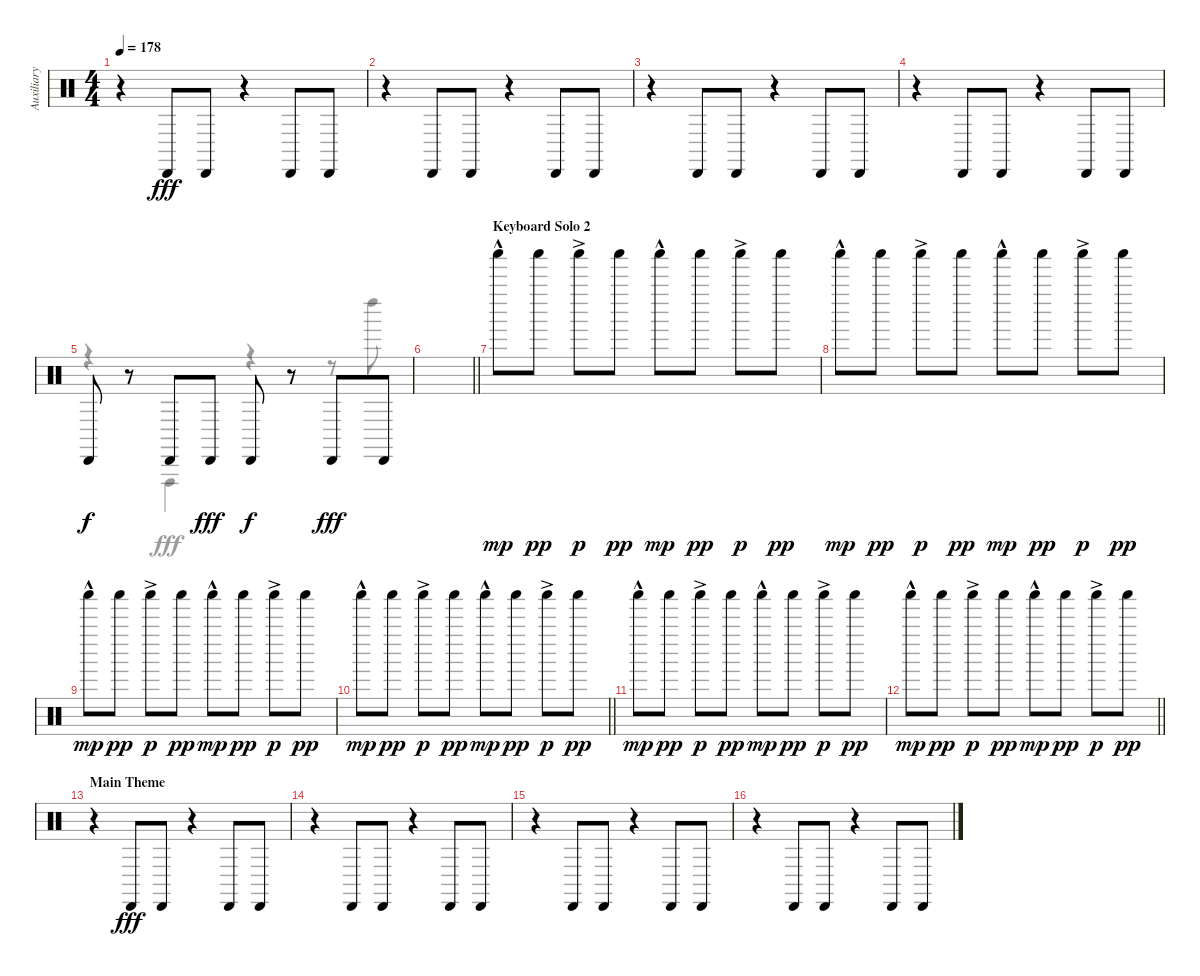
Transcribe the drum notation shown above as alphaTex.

\track ("Auxiliary Percussion" "Auxiliary ") {instrument percussion}
\staff {score}
\articulation defaults
\voice
\ts (4 4)
\tempo 178
\clef neutral
\ks c
r.4{dy fff} "Cabasa (hit)".8 "Cabasa (hit)".8 r.4 "Cabasa (hit)".8 "Cabasa (hit)".8 |
r.4 "Cabasa (hit)".8 "Cabasa (hit)".8 r.4 "Cabasa (hit)".8 "Cabasa (hit)".8 |
r.4 "Cabasa (hit)".8 "Cabasa (hit)".8 r.4 "Cabasa (hit)".8 "Cabasa (hit)".8 |
r.4 "Cabasa (hit)".8 "Cabasa (hit)".8 r.4 "Cabasa (hit)".8 "Cabasa (hit)".8 |
"Cabasa (hit)".8{dy f} r.8 "Cabasa (hit)".8 "Cabasa (hit)".8{dy fff} "Cabasa (hit)".8{dy f} r.8 "Cabasa (hit)".8{dy fff} "Cabasa (hit)".8 |
\barLineRight lightlight
|
\section ("" "Keyboard Solo 2")
"Shaker (hit)"{hac}.8{dy mp} "Shaker (hit)".8{dy pp} "Shaker (hit)"{ac}.8{dy p} "Shaker (hit)".8{dy pp} "Shaker (hit)"{hac}.8{dy mp} "Shaker (hit)".8{dy pp} "Shaker (hit)"{ac}.8{dy p} "Shaker (hit)".8{dy pp} |
"Shaker (hit)"{hac}.8{dy mp} "Shaker (hit)".8{dy pp} "Shaker (hit)"{ac}.8{dy p} "Shaker (hit)".8{dy pp} "Shaker (hit)"{hac}.8{dy mp} "Shaker (hit)".8{dy pp} "Shaker (hit)"{ac}.8{dy p} "Shaker (hit)".8{dy pp} |
"Shaker (hit)"{hac}.8{dy mp} "Shaker (hit)".8{dy pp} "Shaker (hit)"{ac}.8{dy p} "Shaker (hit)".8{dy pp} "Shaker (hit)"{hac}.8{dy mp} "Shaker (hit)".8{dy pp} "Shaker (hit)"{ac}.8{dy p} "Shaker (hit)".8{dy pp} |
\barLineRight lightlight "Shaker (hit)"{hac}.8{dy mp} "Shaker (hit)".8{dy pp} "Shaker (hit)"{ac}.8{dy p} "Shaker (hit)".8{dy pp} "Shaker (hit)"{hac}.8{dy mp} "Shaker (hit)".8{dy pp} "Shaker (hit)"{ac}.8{dy p} "Shaker (hit)".8{dy pp}
|
"Shaker (hit)"{hac}.8{dy mp} "Shaker (hit)".8{dy pp} "Shaker (hit)"{ac}.8{dy p} "Shaker (hit)".8{dy pp} "Shaker (hit)"{hac}.8{dy mp} "Shaker (hit)".8{dy pp} "Shaker (hit)"{ac}.8{dy p} "Shaker (hit)".8{dy pp} |
\barLineRight lightlight "Shaker (hit)"{hac}.8{dy mp} "Shaker (hit)".8{dy pp} "Shaker (hit)"{ac}.8{dy p} "Shaker (hit)".8{dy pp} "Shaker (hit)"{hac}.8{dy mp} "Shaker (hit)".8{dy pp} "Shaker (hit)"{ac}.8{dy p} "Shaker (hit)".8{dy pp}
|
\section ("" "Main Theme")
r.4 "Cabasa (hit)".8{dy fff} "Cabasa (hit)".8 r.4 "Cabasa (hit)".8 "Cabasa (hit)".8 |
r.4 "Cabasa (hit)".8 "Cabasa (hit)".8 r.4 "Cabasa (hit)".8 "Cabasa (hit)".8 |
r.4 "Cabasa (hit)".8 "Cabasa (hit)".8 r.4 "Cabasa (hit)".8 "Cabasa (hit)".8 |
r.4 "Cabasa (hit)".8 "Cabasa (hit)".8 r.4 "Cabasa (hit)".8 "Cabasa (hit)".8
\voice
\clef neutral
\ottava regular
\simile none
\ks c
|
|
|
|
r.4 "Vibraslap (hit)".4 r.4 r.8 "Left Maraca (hit)".8 |
\barLineRight lightlight
|
|
|
|
\barLineRight lightlight
|
|
\barLineRight lightlight
|
|
|
|
